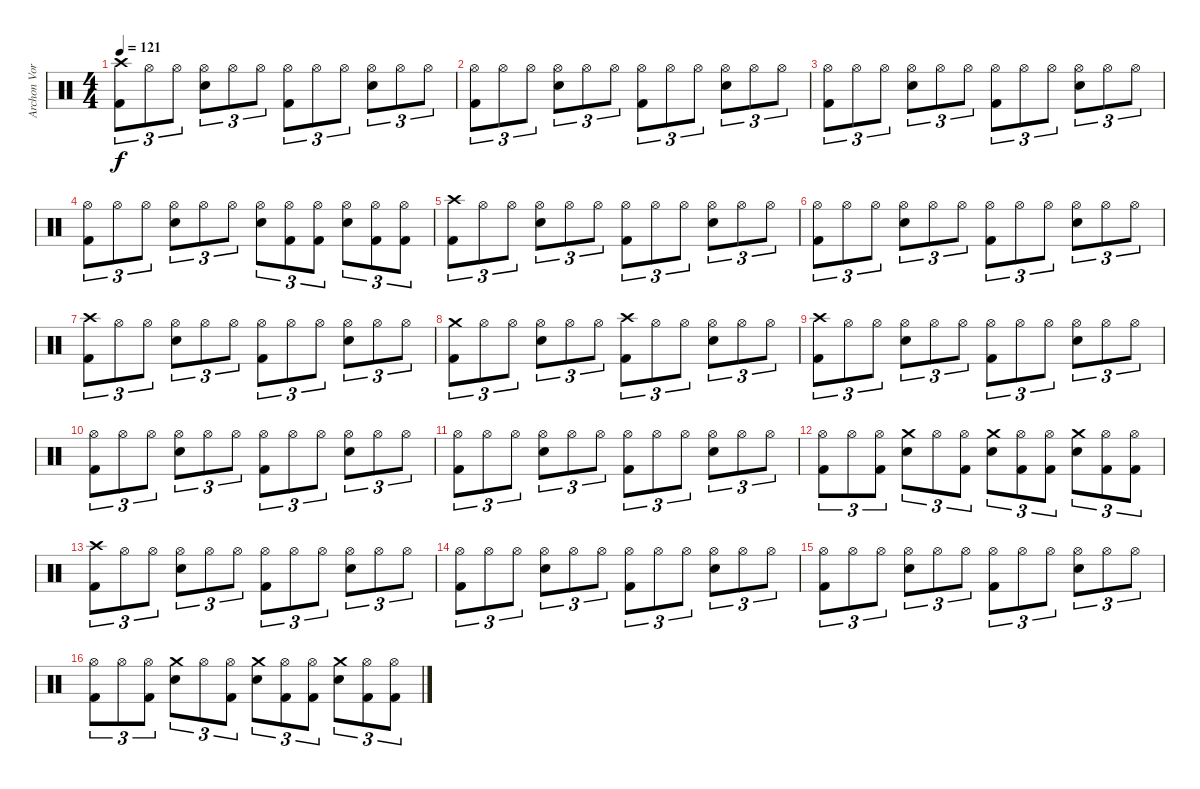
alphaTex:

\track ("Archon Vorskaath" "Archon Vor") {instrument percussion}
\staff {score}
\articulation defaults
\ts (4 4)
\tempo 121
\clef neutral
\ks c
("Crash high (hit)" "Kick (hit) 2").8{tu (3 2) dy f} "Hi-Hat (open)".8{tu (3 2)} "Hi-Hat (open)".8{tu (3 2)} ("Hi-Hat (open)" "Electric Snare (hit)").8{tu (3 2)} "Hi-Hat (open)".8{tu (3 2)} "Hi-Hat (open)".8{tu (3 2)} ("Hi-Hat (open)" "Kick (hit) 2").8{tu (3 2)} "Hi-Hat (open)".8{tu (3 2)} "Hi-Hat (open)".8{tu (3 2)} ("Hi-Hat (open)" "Electric Snare (hit)").8{tu (3 2)} "Hi-Hat (open)".8{tu (3 2)} "Hi-Hat (open)".8{tu (3 2)} |
("Hi-Hat (open)" "Kick (hit) 2").8{tu (3 2)} "Hi-Hat (open)".8{tu (3 2)} "Hi-Hat (open)".8{tu (3 2)} ("Hi-Hat (open)" "Electric Snare (hit)").8{tu (3 2)} "Hi-Hat (open)".8{tu (3 2)} "Hi-Hat (open)".8{tu (3 2)} ("Hi-Hat (open)" "Kick (hit) 2").8{tu (3 2)} "Hi-Hat (open)".8{tu (3 2)} "Hi-Hat (open)".8{tu (3 2)} ("Hi-Hat (open)" "Electric Snare (hit)").8{tu (3 2)} "Hi-Hat (open)".8{tu (3 2)} "Hi-Hat (open)".8{tu (3 2)} |
("Hi-Hat (open)" "Kick (hit) 2").8{tu (3 2)} "Hi-Hat (open)".8{tu (3 2)} "Hi-Hat (open)".8{tu (3 2)} ("Hi-Hat (open)" "Electric Snare (hit)").8{tu (3 2)} "Hi-Hat (open)".8{tu (3 2)} "Hi-Hat (open)".8{tu (3 2)} ("Hi-Hat (open)" "Kick (hit) 2").8{tu (3 2)} "Hi-Hat (open)".8{tu (3 2)} "Hi-Hat (open)".8{tu (3 2)} ("Hi-Hat (open)" "Electric Snare (hit)").8{tu (3 2)} "Hi-Hat (open)".8{tu (3 2)} "Hi-Hat (open)".8{tu (3 2)} |
("Hi-Hat (open)" "Kick (hit) 2").8{tu (3 2)} "Hi-Hat (open)".8{tu (3 2)} "Hi-Hat (open)".8{tu (3 2)} ("Hi-Hat (open)" "Electric Snare (hit)").8{tu (3 2)} "Hi-Hat (open)".8{tu (3 2)} "Hi-Hat (open)".8{tu (3 2)} ("Hi-Hat (open)" "Electric Snare (hit)").8{tu (3 2)} ("Hi-Hat (open)" "Kick (hit) 2").8{tu (3 2)} ("Hi-Hat (open)" "Kick (hit) 2").8{tu (3 2)} ("Hi-Hat (open)" "Electric Snare (hit)").8{tu (3 2)} ("Hi-Hat (open)" "Kick (hit) 2").8{tu (3 2)} ("Hi-Hat (open)" "Kick (hit) 2").8{tu (3 2)} |
("Crash high (hit)" "Kick (hit) 2").8{tu (3 2)} "Hi-Hat (open)".8{tu (3 2)} "Hi-Hat (open)".8{tu (3 2)} ("Hi-Hat (open)" "Electric Snare (hit)").8{tu (3 2)} "Hi-Hat (open)".8{tu (3 2)} "Hi-Hat (open)".8{tu (3 2)} ("Hi-Hat (open)" "Kick (hit) 2").8{tu (3 2)} "Hi-Hat (open)".8{tu (3 2)} "Hi-Hat (open)".8{tu (3 2)} ("Hi-Hat (open)" "Electric Snare (hit)").8{tu (3 2)} "Hi-Hat (open)".8{tu (3 2)} "Hi-Hat (open)".8{tu (3 2)} |
("Hi-Hat (open)" "Kick (hit) 2").8{tu (3 2)} "Hi-Hat (open)".8{tu (3 2)} "Hi-Hat (open)".8{tu (3 2)} ("Hi-Hat (open)" "Electric Snare (hit)").8{tu (3 2)} "Hi-Hat (open)".8{tu (3 2)} "Hi-Hat (open)".8{tu (3 2)} ("Hi-Hat (open)" "Kick (hit) 2").8{tu (3 2)} "Hi-Hat (open)".8{tu (3 2)} "Hi-Hat (open)".8{tu (3 2)} ("Hi-Hat (open)" "Electric Snare (hit)").8{tu (3 2)} "Hi-Hat (open)".8{tu (3 2)} "Hi-Hat (open)".8{tu (3 2)} |
("Crash high (hit)" "Kick (hit) 2").8{tu (3 2)} "Hi-Hat (open)".8{tu (3 2)} "Hi-Hat (open)".8{tu (3 2)} ("Hi-Hat (open)" "Electric Snare (hit)").8{tu (3 2)} "Hi-Hat (open)".8{tu (3 2)} "Hi-Hat (open)".8{tu (3 2)} ("Hi-Hat (open)" "Kick (hit) 2").8{tu (3 2)} "Hi-Hat (open)".8{tu (3 2)} "Hi-Hat (open)".8{tu (3 2)} ("Hi-Hat (open)" "Electric Snare (hit)").8{tu (3 2)} "Hi-Hat (open)".8{tu (3 2)} "Hi-Hat (open)".8{tu (3 2)} |
("Crash medium (hit)" "Kick (hit) 2").8{tu (3 2)} "Hi-Hat (open)".8{tu (3 2)} "Hi-Hat (open)".8{tu (3 2)} ("Hi-Hat (open)" "Electric Snare (hit)").8{tu (3 2)} "Hi-Hat (open)".8{tu (3 2)} "Hi-Hat (open)".8{tu (3 2)} ("Crash high (hit)" "Kick (hit) 2").8{tu (3 2)} "Hi-Hat (open)".8{tu (3 2)} "Hi-Hat (open)".8{tu (3 2)} ("Hi-Hat (open)" "Electric Snare (hit)").8{tu (3 2)} "Hi-Hat (open)".8{tu (3 2)} "Hi-Hat (open)".8{tu (3 2)} |
("Crash high (hit)" "Kick (hit) 2").8{tu (3 2)} "Hi-Hat (open)".8{tu (3 2)} "Hi-Hat (open)".8{tu (3 2)} ("Hi-Hat (open)" "Electric Snare (hit)").8{tu (3 2)} "Hi-Hat (open)".8{tu (3 2)} "Hi-Hat (open)".8{tu (3 2)} ("Hi-Hat (open)" "Kick (hit) 2").8{tu (3 2)} "Hi-Hat (open)".8{tu (3 2)} "Hi-Hat (open)".8{tu (3 2)} ("Hi-Hat (open)" "Electric Snare (hit)").8{tu (3 2)} "Hi-Hat (open)".8{tu (3 2)} "Hi-Hat (open)".8{tu (3 2)} |
("Hi-Hat (open)" "Kick (hit) 2").8{tu (3 2)} "Hi-Hat (open)".8{tu (3 2)} "Hi-Hat (open)".8{tu (3 2)} ("Hi-Hat (open)" "Electric Snare (hit)").8{tu (3 2)} "Hi-Hat (open)".8{tu (3 2)} "Hi-Hat (open)".8{tu (3 2)} ("Hi-Hat (open)" "Kick (hit) 2").8{tu (3 2)} "Hi-Hat (open)".8{tu (3 2)} "Hi-Hat (open)".8{tu (3 2)} ("Hi-Hat (open)" "Electric Snare (hit)").8{tu (3 2)} "Hi-Hat (open)".8{tu (3 2)} "Hi-Hat (open)".8{tu (3 2)} |
("Hi-Hat (open)" "Kick (hit) 2").8{tu (3 2)} "Hi-Hat (open)".8{tu (3 2)} "Hi-Hat (open)".8{tu (3 2)} ("Hi-Hat (open)" "Electric Snare (hit)").8{tu (3 2)} "Hi-Hat (open)".8{tu (3 2)} "Hi-Hat (open)".8{tu (3 2)} ("Hi-Hat (open)" "Kick (hit) 2").8{tu (3 2)} "Hi-Hat (open)".8{tu (3 2)} "Hi-Hat (open)".8{tu (3 2)} ("Hi-Hat (open)" "Electric Snare (hit)").8{tu (3 2)} "Hi-Hat (open)".8{tu (3 2)} "Hi-Hat (open)".8{tu (3 2)} |
("Hi-Hat (open)" "Kick (hit) 2").8{tu (3 2)} "Hi-Hat (open)".8{tu (3 2)} ("Hi-Hat (open)" "Kick (hit) 2").8{tu (3 2)} ("Crash medium (hit)" "Electric Snare (hit)").8{tu (3 2)} "Hi-Hat (open)".8{tu (3 2)} ("Hi-Hat (open)" "Kick (hit) 2").8{tu (3 2)} ("Crash medium (hit)" "Electric Snare (hit)").8{tu (3 2)} ("Hi-Hat (open)" "Kick (hit) 2").8{tu (3 2)} ("Hi-Hat (open)" "Kick (hit) 2").8{tu (3 2)} ("Crash medium (hit)" "Electric Snare (hit)").8{tu (3 2)} ("Hi-Hat (open)" "Kick (hit) 2").8{tu (3 2)} ("Hi-Hat (open)" "Kick (hit) 2").8{tu (3 2)} |
("Crash high (hit)" "Kick (hit) 2").8{tu (3 2)} "Hi-Hat (open)".8{tu (3 2)} "Hi-Hat (open)".8{tu (3 2)} ("Hi-Hat (open)" "Electric Snare (hit)").8{tu (3 2)} "Hi-Hat (open)".8{tu (3 2)} "Hi-Hat (open)".8{tu (3 2)} ("Hi-Hat (open)" "Kick (hit) 2").8{tu (3 2)} "Hi-Hat (open)".8{tu (3 2)} "Hi-Hat (open)".8{tu (3 2)} ("Hi-Hat (open)" "Electric Snare (hit)").8{tu (3 2)} "Hi-Hat (open)".8{tu (3 2)} "Hi-Hat (open)".8{tu (3 2)} |
("Hi-Hat (open)" "Kick (hit) 2").8{tu (3 2)} "Hi-Hat (open)".8{tu (3 2)} "Hi-Hat (open)".8{tu (3 2)} ("Hi-Hat (open)" "Electric Snare (hit)").8{tu (3 2)} "Hi-Hat (open)".8{tu (3 2)} "Hi-Hat (open)".8{tu (3 2)} ("Hi-Hat (open)" "Kick (hit) 2").8{tu (3 2)} "Hi-Hat (open)".8{tu (3 2)} "Hi-Hat (open)".8{tu (3 2)} ("Hi-Hat (open)" "Electric Snare (hit)").8{tu (3 2)} "Hi-Hat (open)".8{tu (3 2)} "Hi-Hat (open)".8{tu (3 2)} |
("Hi-Hat (open)" "Kick (hit) 2").8{tu (3 2)} "Hi-Hat (open)".8{tu (3 2)} "Hi-Hat (open)".8{tu (3 2)} ("Hi-Hat (open)" "Electric Snare (hit)").8{tu (3 2)} "Hi-Hat (open)".8{tu (3 2)} "Hi-Hat (open)".8{tu (3 2)} ("Hi-Hat (open)" "Kick (hit) 2").8{tu (3 2)} "Hi-Hat (open)".8{tu (3 2)} "Hi-Hat (open)".8{tu (3 2)} ("Hi-Hat (open)" "Electric Snare (hit)").8{tu (3 2)} "Hi-Hat (open)".8{tu (3 2)} "Hi-Hat (open)".8{tu (3 2)} |
("Hi-Hat (open)" "Kick (hit) 2").8{tu (3 2)} "Hi-Hat (open)".8{tu (3 2)} ("Hi-Hat (open)" "Kick (hit) 2").8{tu (3 2)} ("Crash medium (hit)" "Electric Snare (hit)").8{tu (3 2)} "Hi-Hat (open)".8{tu (3 2)} ("Hi-Hat (open)" "Kick (hit) 2").8{tu (3 2)} ("Crash medium (hit)" "Electric Snare (hit)").8{tu (3 2)} ("Hi-Hat (open)" "Kick (hit) 2").8{tu (3 2)} ("Hi-Hat (open)" "Kick (hit) 2").8{tu (3 2)} ("Crash medium (hit)" "Electric Snare (hit)").8{tu (3 2)} ("Hi-Hat (open)" "Kick (hit) 2").8{tu (3 2)} ("Hi-Hat (open)" "Kick (hit) 2").8{tu (3 2)}
